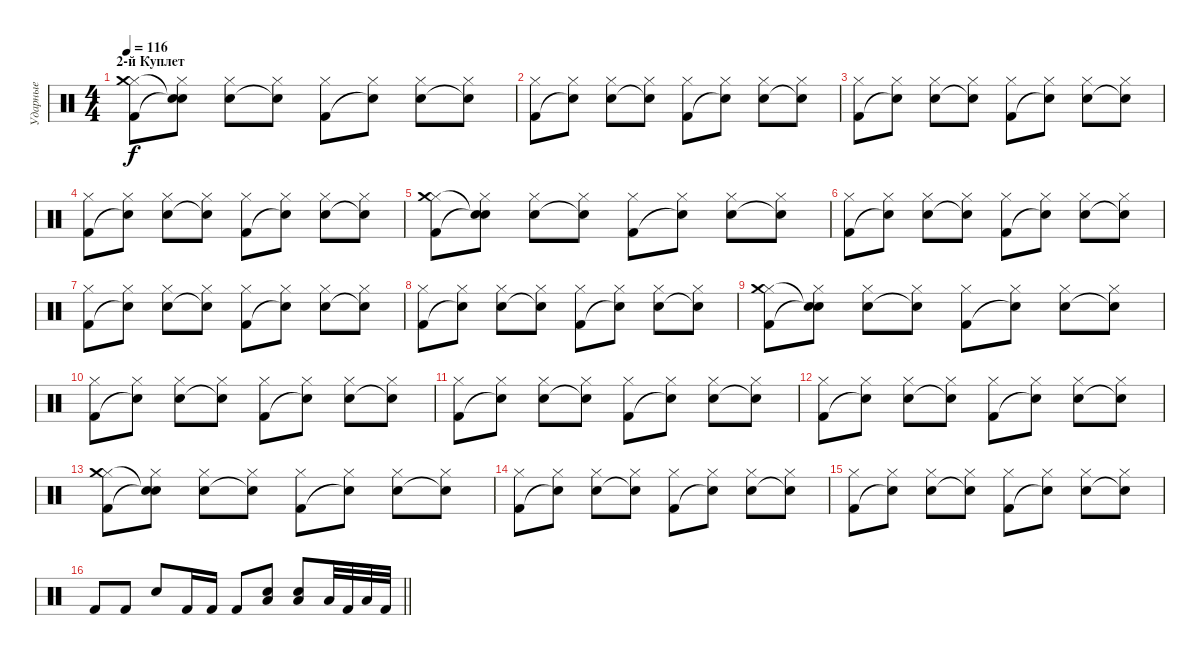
\track ("Ударные" "Ударные") {instrument percussion}
\staff {score}
\articulation defaults
\ts (4 4)
\section ("" "2-й Куплет")
\tempo 116
\clef neutral
\ks c
("Hi-Hat (closed)" "Crash medium (hit)" "Kick (hit) 2").8{dy f} ("Hi-Hat (closed)" "Snare (hit)"{t} "Snare (hit)"{t}).8 ("Hi-Hat (closed)" "Snare (hit) 2").8 ("Hi-Hat (closed)" "Snare (hit)"{t}).8 ("Hi-Hat (closed)" "Kick (hit) 2").8 ("Hi-Hat (closed)" "Snare (hit)"{t}).8 ("Hi-Hat (closed)" "Snare (hit) 2").8 ("Hi-Hat (closed)" "Snare (hit)"{t}).8 |
("Hi-Hat (closed)" "Kick (hit) 2").8 ("Hi-Hat (closed)" "Snare (hit)"{t}).8 ("Hi-Hat (closed)" "Snare (hit) 2").8 ("Hi-Hat (closed)" "Snare (hit)"{t}).8 ("Hi-Hat (closed)" "Kick (hit) 2").8 ("Hi-Hat (closed)" "Snare (hit)"{t}).8 ("Hi-Hat (closed)" "Snare (hit) 2").8 ("Hi-Hat (closed)" "Snare (hit)"{t}).8 |
("Hi-Hat (closed)" "Kick (hit) 2").8 ("Hi-Hat (closed)" "Snare (hit)"{t}).8 ("Hi-Hat (closed)" "Snare (hit) 2").8 ("Hi-Hat (closed)" "Snare (hit)"{t}).8 ("Hi-Hat (closed)" "Kick (hit) 2").8 ("Hi-Hat (closed)" "Snare (hit)"{t}).8 ("Hi-Hat (closed)" "Snare (hit) 2").8 ("Hi-Hat (closed)" "Snare (hit)"{t}).8 |
("Hi-Hat (closed)" "Kick (hit) 2").8 ("Hi-Hat (closed)" "Snare (hit)"{t}).8 ("Hi-Hat (closed)" "Snare (hit) 2").8 ("Hi-Hat (closed)" "Snare (hit)"{t}).8 ("Hi-Hat (closed)" "Kick (hit) 2").8 ("Hi-Hat (closed)" "Snare (hit)"{t}).8 ("Hi-Hat (closed)" "Snare (hit) 2").8 ("Hi-Hat (closed)" "Snare (hit)"{t}).8 |
("Hi-Hat (closed)" "Crash medium (hit)" "Kick (hit) 2").8 ("Hi-Hat (closed)" "Snare (hit)"{t} "Snare (hit)"{t}).8 ("Hi-Hat (closed)" "Snare (hit) 2").8 ("Hi-Hat (closed)" "Snare (hit)"{t}).8 ("Hi-Hat (closed)" "Kick (hit) 2").8 ("Hi-Hat (closed)" "Snare (hit)"{t}).8 ("Hi-Hat (closed)" "Snare (hit) 2").8 ("Hi-Hat (closed)" "Snare (hit)"{t}).8 |
("Hi-Hat (closed)" "Kick (hit) 2").8 ("Hi-Hat (closed)" "Snare (hit)"{t}).8 ("Hi-Hat (closed)" "Snare (hit) 2").8 ("Hi-Hat (closed)" "Snare (hit)"{t}).8 ("Hi-Hat (closed)" "Kick (hit) 2").8 ("Hi-Hat (closed)" "Snare (hit)"{t}).8 ("Hi-Hat (closed)" "Snare (hit) 2").8 ("Hi-Hat (closed)" "Snare (hit)"{t}).8 |
("Hi-Hat (closed)" "Kick (hit) 2").8 ("Hi-Hat (closed)" "Snare (hit)"{t}).8 ("Hi-Hat (closed)" "Snare (hit) 2").8 ("Hi-Hat (closed)" "Snare (hit)"{t}).8 ("Hi-Hat (closed)" "Kick (hit) 2").8 ("Hi-Hat (closed)" "Snare (hit)"{t}).8 ("Hi-Hat (closed)" "Snare (hit) 2").8 ("Hi-Hat (closed)" "Snare (hit)"{t}).8 |
("Hi-Hat (closed)" "Kick (hit) 2").8 ("Hi-Hat (closed)" "Snare (hit)"{t}).8 ("Hi-Hat (closed)" "Snare (hit) 2").8 ("Hi-Hat (closed)" "Snare (hit)"{t}).8 ("Hi-Hat (closed)" "Kick (hit) 2").8 ("Hi-Hat (closed)" "Snare (hit)"{t}).8 ("Hi-Hat (closed)" "Snare (hit) 2").8 ("Hi-Hat (closed)" "Snare (hit)"{t}).8 |
("Hi-Hat (closed)" "Crash medium (hit)" "Kick (hit) 2").8 ("Hi-Hat (closed)" "Snare (hit)"{t} "Snare (hit)"{t}).8 ("Hi-Hat (closed)" "Snare (hit) 2").8 ("Hi-Hat (closed)" "Snare (hit)"{t}).8 ("Hi-Hat (closed)" "Kick (hit) 2").8 ("Hi-Hat (closed)" "Snare (hit)"{t}).8 ("Hi-Hat (closed)" "Snare (hit) 2").8 ("Hi-Hat (closed)" "Snare (hit)"{t}).8 |
("Hi-Hat (closed)" "Kick (hit) 2").8 ("Hi-Hat (closed)" "Snare (hit)"{t}).8 ("Hi-Hat (closed)" "Snare (hit) 2").8 ("Hi-Hat (closed)" "Snare (hit)"{t}).8 ("Hi-Hat (closed)" "Kick (hit) 2").8 ("Hi-Hat (closed)" "Snare (hit)"{t}).8 ("Hi-Hat (closed)" "Snare (hit) 2").8 ("Hi-Hat (closed)" "Snare (hit)"{t}).8 |
("Hi-Hat (closed)" "Kick (hit) 2").8 ("Hi-Hat (closed)" "Snare (hit)"{t}).8 ("Hi-Hat (closed)" "Snare (hit) 2").8 ("Hi-Hat (closed)" "Snare (hit)"{t}).8 ("Hi-Hat (closed)" "Kick (hit) 2").8 ("Hi-Hat (closed)" "Snare (hit)"{t}).8 ("Hi-Hat (closed)" "Snare (hit) 2").8 ("Hi-Hat (closed)" "Snare (hit)"{t}).8 |
("Hi-Hat (closed)" "Kick (hit) 2").8 ("Hi-Hat (closed)" "Snare (hit)"{t}).8 ("Hi-Hat (closed)" "Snare (hit) 2").8 ("Hi-Hat (closed)" "Snare (hit)"{t}).8 ("Hi-Hat (closed)" "Kick (hit) 2").8 ("Hi-Hat (closed)" "Snare (hit)"{t}).8 ("Hi-Hat (closed)" "Snare (hit) 2").8 ("Hi-Hat (closed)" "Snare (hit)"{t}).8 |
("Hi-Hat (closed)" "Crash medium (hit)" "Kick (hit) 2").8 ("Hi-Hat (closed)" "Snare (hit)"{t} "Snare (hit)"{t}).8 ("Hi-Hat (closed)" "Snare (hit) 2").8 ("Hi-Hat (closed)" "Snare (hit)"{t}).8 ("Hi-Hat (closed)" "Kick (hit) 2").8 ("Hi-Hat (closed)" "Snare (hit)"{t}).8 ("Hi-Hat (closed)" "Snare (hit) 2").8 ("Hi-Hat (closed)" "Snare (hit)"{t}).8 |
("Hi-Hat (closed)" "Kick (hit) 2").8 ("Hi-Hat (closed)" "Snare (hit)"{t}).8 ("Hi-Hat (closed)" "Snare (hit) 2").8 ("Hi-Hat (closed)" "Snare (hit)"{t}).8 ("Hi-Hat (closed)" "Kick (hit) 2").8 ("Hi-Hat (closed)" "Snare (hit)"{t}).8 ("Hi-Hat (closed)" "Snare (hit) 2").8 ("Hi-Hat (closed)" "Snare (hit)"{t}).8 |
("Hi-Hat (closed)" "Kick (hit) 2").8 ("Hi-Hat (closed)" "Snare (hit)"{t}).8 ("Hi-Hat (closed)" "Snare (hit) 2").8 ("Hi-Hat (closed)" "Snare (hit)"{t}).8 ("Hi-Hat (closed)" "Kick (hit) 2").8 ("Hi-Hat (closed)" "Snare (hit)"{t}).8 ("Hi-Hat (closed)" "Snare (hit) 2").8 ("Hi-Hat (closed)" "Snare (hit)"{t}).8 |
\barLineRight lightlight "Kick (hit) 2".8 "Kick (hit) 2".8 "Snare (hit) 2".8 "Kick (hit) 2".16 "Kick (hit) 2".16 "Kick (hit) 2".8
("Snare (hit) 2" "Low Tom (hit)").8 ("Snare (hit) 2" "Low Tom (hit)").8 "Low Floor Tom (hit)".32 "Kick (hit) 2".32 "Low Floor Tom (hit)".32 "Kick (hit) 2".32
